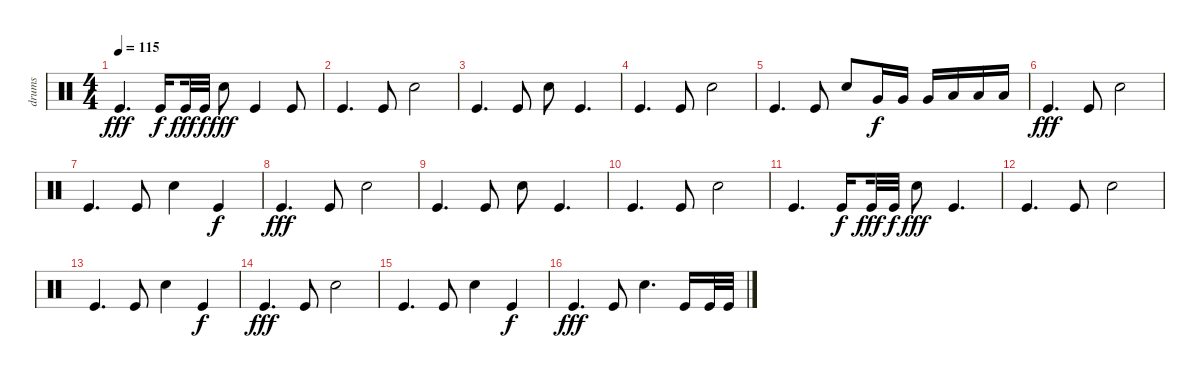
\track ("drums" "drums") {instrument percussion}
\staff {score}
\articulation defaults
\ts (4 4)
\tempo 115
\clef neutral
\ks c "Kick (hit)".4{d dy fff} "Kick (hit)".16{dy f beam splitsecondary} "Kick (hit)".32{dy fff} "Kick (hit)".32{dy f} "Electric Snare (hit)".8{dy fff} "Kick (hit)".4 "Kick (hit)".8
|
"Kick (hit)".4{d} "Kick (hit)".8 "Electric Snare (hit)".2 |
"Kick (hit)".4{d} "Kick (hit)".8 "Electric Snare (hit)".8 "Kick (hit)".4{d} |
"Kick (hit)".4{d} "Kick (hit)".8 "Electric Snare (hit)".2 |
"Kick (hit)".4{d} "Kick (hit)".8 "Electric Snare (hit)".8 "Very Low Tom (hit)".16{dy f} "Very Low Tom (hit)".16 "Very Low Tom (hit)".16 "Low Floor Tom (hit)".16 "Low Floor Tom (hit)".16 "Low Floor Tom (hit)".16 |
"Kick (hit)".4{d dy fff} "Kick (hit)".8 "Electric Snare (hit)".2 |
"Kick (hit)".4{d} "Kick (hit)".8 "Electric Snare (hit)".4 "Kick (hit)".4{dy f} |
"Kick (hit)".4{d dy fff} "Kick (hit)".8 "Electric Snare (hit)".2 |
"Kick (hit)".4{d} "Kick (hit)".8 "Electric Snare (hit)".8 "Kick (hit)".4{d} |
"Kick (hit)".4{d} "Kick (hit)".8 "Electric Snare (hit)".2 |
"Kick (hit)".4{d} "Kick (hit)".16{dy f beam splitsecondary} "Kick (hit)".32{dy fff} "Kick (hit)".32{dy f} "Electric Snare (hit)".8{dy fff} "Kick (hit)".4{d} |
"Kick (hit)".4{d} "Kick (hit)".8 "Electric Snare (hit)".2 |
"Kick (hit)".4{d} "Kick (hit)".8 "Electric Snare (hit)".4 "Kick (hit)".4{dy f} |
"Kick (hit)".4{d dy fff} "Kick (hit)".8 "Electric Snare (hit)".2 |
"Kick (hit)".4{d} "Kick (hit)".8 "Electric Snare (hit)".4 "Kick (hit)".4{dy f} |
"Kick (hit)".4{d dy fff} "Kick (hit)".8 "Electric Snare (hit)".4{d} "Kick (hit)".16 "Kick (hit)".32 "Kick (hit)".32
